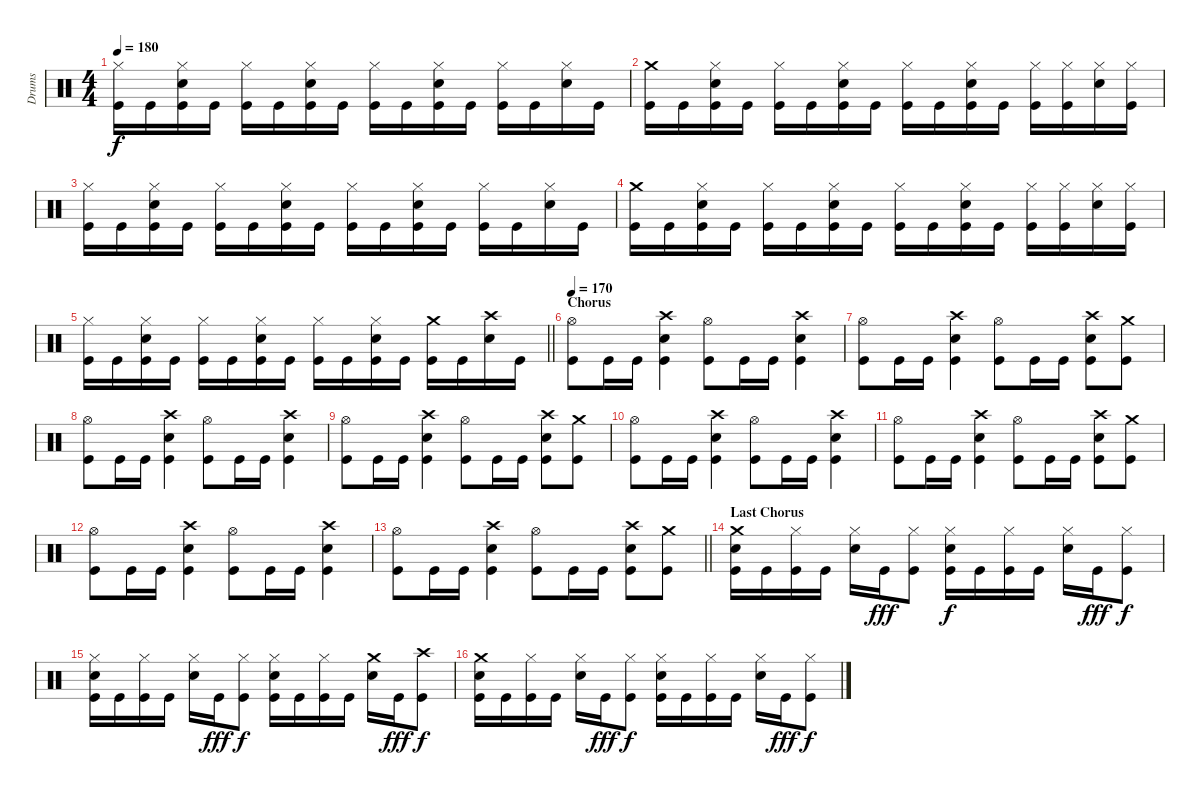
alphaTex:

\track ("Drums" "Drums") {instrument percussion}
\staff {score}
\articulation defaults
\ts (4 4)
\tempo 180
\clef neutral
\ks c
("Hi-Hat (closed)" "Kick (hit)").16{dy f} "Kick (hit)".16 ("Hi-Hat (closed)" "Snare (hit) 2" "Kick (hit)").16 "Kick (hit)".16 ("Hi-Hat (closed)" "Kick (hit)").16 "Kick (hit)".16 ("Hi-Hat (closed)" "Snare (hit) 2" "Kick (hit)").16 "Kick (hit)".16 ("Hi-Hat (closed)" "Kick (hit)").16 "Kick (hit)".16 ("Hi-Hat (closed)" "Snare (hit) 2" "Kick (hit)").16 "Kick (hit)".16 ("Hi-Hat (closed)" "Kick (hit)").16 "Kick (hit)".16 ("Hi-Hat (closed)" "Snare (hit) 2").16 "Kick (hit)".16 |
("Crash medium (hit)" "Kick (hit)").16 "Kick (hit)".16 ("Hi-Hat (closed)" "Snare (hit) 2" "Kick (hit)").16 "Kick (hit)".16 ("Hi-Hat (closed)" "Kick (hit)").16 "Kick (hit)".16 ("Hi-Hat (closed)" "Snare (hit) 2" "Kick (hit)").16 "Kick (hit)".16 ("Hi-Hat (closed)" "Kick (hit)").16 "Kick (hit)".16 ("Hi-Hat (closed)" "Snare (hit) 2" "Kick (hit)").16 "Kick (hit)".16 ("Hi-Hat (closed)" "Kick (hit)").16 ("Hi-Hat (closed)" "Kick (hit)").16 ("Hi-Hat (closed)" "Snare (hit) 2").16 ("Hi-Hat (closed)" "Kick (hit)").16 |
("Hi-Hat (closed)" "Kick (hit)").16 "Kick (hit)".16 ("Hi-Hat (closed)" "Snare (hit) 2" "Kick (hit)").16 "Kick (hit)".16 ("Hi-Hat (closed)" "Kick (hit)").16 "Kick (hit)".16 ("Hi-Hat (closed)" "Snare (hit) 2" "Kick (hit)").16 "Kick (hit)".16 ("Hi-Hat (closed)" "Kick (hit)").16 "Kick (hit)".16 ("Hi-Hat (closed)" "Snare (hit) 2" "Kick (hit)").16 "Kick (hit)".16 ("Hi-Hat (closed)" "Kick (hit)").16 "Kick (hit)".16 ("Hi-Hat (closed)" "Snare (hit) 2").16 "Kick (hit)".16 |
("Crash medium (hit)" "Kick (hit)").16 "Kick (hit)".16 ("Hi-Hat (closed)" "Snare (hit) 2" "Kick (hit)").16 "Kick (hit)".16 ("Hi-Hat (closed)" "Kick (hit)").16 "Kick (hit)".16 ("Hi-Hat (closed)" "Snare (hit) 2" "Kick (hit)").16 "Kick (hit)".16 ("Hi-Hat (closed)" "Kick (hit)").16 "Kick (hit)".16 ("Hi-Hat (closed)" "Snare (hit) 2" "Kick (hit)").16 "Kick (hit)".16 ("Hi-Hat (closed)" "Kick (hit)").16 ("Hi-Hat (closed)" "Kick (hit)").16 ("Hi-Hat (closed)" "Snare (hit) 2").16 ("Hi-Hat (closed)" "Kick (hit)").16 |
\barLineRight lightlight
("Hi-Hat (closed)" "Kick (hit)").16 "Kick (hit)".16 ("Hi-Hat (closed)" "Snare (hit) 2" "Kick (hit)").16 "Kick (hit)".16 ("Hi-Hat (closed)" "Kick (hit)").16 "Kick (hit)".16 ("Hi-Hat (closed)" "Snare (hit) 2" "Kick (hit)").16 "Kick (hit)".16 ("Hi-Hat (closed)" "Kick (hit)").16 "Kick (hit)".16 ("Hi-Hat (closed)" "Snare (hit) 2" "Kick (hit)").16 "Kick (hit)".16 ("Crash medium (hit)" "Kick (hit)").16 "Kick (hit)".16 ("Crash high (hit)" "Snare (hit) 2").16 "Kick (hit)".16 |
\section ("" "Chorus")
\tempo 170
("Hi-Hat (open)" "Kick (hit)").8 "Kick (hit)".16 "Kick (hit)".16 ("Crash high (hit)" "Snare (hit) 2" "Kick (hit)").4 ("Hi-Hat (open)" "Kick (hit)").8 "Kick (hit)".16 "Kick (hit)".16 ("Crash high (hit)" "Snare (hit) 2" "Kick (hit)").4 |
("Hi-Hat (open)" "Kick (hit)").8 "Kick (hit)".16 "Kick (hit)".16 ("Crash high (hit)" "Snare (hit) 2" "Kick (hit)").4 ("Hi-Hat (open)" "Kick (hit)").8 "Kick (hit)".16 "Kick (hit)".16 ("Crash high (hit)" "Snare (hit) 2" "Kick (hit)").8 ("Crash medium (hit)" "Kick (hit)").8 |
("Hi-Hat (open)" "Kick (hit)").8 "Kick (hit)".16 "Kick (hit)".16 ("Crash high (hit)" "Snare (hit) 2" "Kick (hit)").4 ("Hi-Hat (open)" "Kick (hit)").8 "Kick (hit)".16 "Kick (hit)".16 ("Crash high (hit)" "Snare (hit) 2" "Kick (hit)").4 |
("Hi-Hat (open)" "Kick (hit)").8 "Kick (hit)".16 "Kick (hit)".16 ("Crash high (hit)" "Snare (hit) 2" "Kick (hit)").4 ("Hi-Hat (open)" "Kick (hit)").8 "Kick (hit)".16 "Kick (hit)".16 ("Crash high (hit)" "Snare (hit) 2" "Kick (hit)").8 ("Crash medium (hit)" "Kick (hit)").8 |
("Hi-Hat (open)" "Kick (hit)").8 "Kick (hit)".16 "Kick (hit)".16 ("Crash high (hit)" "Snare (hit) 2" "Kick (hit)").4 ("Hi-Hat (open)" "Kick (hit)").8 "Kick (hit)".16 "Kick (hit)".16 ("Crash high (hit)" "Snare (hit) 2" "Kick (hit)").4 |
("Hi-Hat (open)" "Kick (hit)").8 "Kick (hit)".16 "Kick (hit)".16 ("Crash high (hit)" "Snare (hit) 2" "Kick (hit)").4 ("Hi-Hat (open)" "Kick (hit)").8 "Kick (hit)".16 "Kick (hit)".16 ("Crash high (hit)" "Snare (hit) 2" "Kick (hit)").8 ("Crash medium (hit)" "Kick (hit)").8 |
("Hi-Hat (open)" "Kick (hit)").8 "Kick (hit)".16 "Kick (hit)".16 ("Crash high (hit)" "Snare (hit) 2" "Kick (hit)").4 ("Hi-Hat (open)" "Kick (hit)").8 "Kick (hit)".16 "Kick (hit)".16 ("Crash high (hit)" "Snare (hit) 2" "Kick (hit)").4 |
\barLineRight lightlight
("Hi-Hat (open)" "Kick (hit)").8 "Kick (hit)".16 "Kick (hit)".16 ("Crash high (hit)" "Snare (hit) 2" "Kick (hit)").4 ("Hi-Hat (open)" "Kick (hit)").8 "Kick (hit)".16 "Kick (hit)".16 ("Crash high (hit)" "Snare (hit) 2" "Kick (hit)").8 ("Crash medium (hit)" "Kick (hit)").8 |
\section ("" "Last Chorus")
("Crash medium (hit)" "Snare (hit) 2" "Kick (hit)").16 "Kick (hit)".16 ("Hi-Hat (closed)" "Kick (hit)").16 "Kick (hit)".16 ("Hi-Hat (closed)" "Snare (hit) 2").16 "Kick (hit)".16{dy fff} ("Hi-Hat (closed)" "Kick (hit)").8 ("Hi-Hat (closed)" "Snare (hit) 2" "Kick (hit)").16{dy f} "Kick (hit)".16 ("Hi-Hat (closed)" "Kick (hit)").16 "Kick (hit)".16 ("Hi-Hat (closed)" "Snare (hit) 2").16 "Kick (hit)".16{dy fff} ("Hi-Hat (closed)" "Kick (hit)").8{dy f} |
("Hi-Hat (closed)" "Snare (hit) 2" "Kick (hit)").16 "Kick (hit)".16 ("Hi-Hat (closed)" "Kick (hit)").16 "Kick (hit)".16 ("Hi-Hat (closed)" "Snare (hit) 2").16 "Kick (hit)".16{dy fff} ("Hi-Hat (closed)" "Kick (hit)").8{dy f} ("Hi-Hat (closed)" "Snare (hit) 2" "Kick (hit)").16 "Kick (hit)".16 ("Hi-Hat (closed)" "Kick (hit)").16 "Kick (hit)".16 ("Crash medium (hit)" "Snare (hit) 2").16 "Kick (hit)".16{dy fff} ("Crash high (hit)" "Kick (hit)").8{dy f} |
("Crash medium (hit)" "Snare (hit) 2" "Kick (hit)").16 "Kick (hit)".16 ("Hi-Hat (closed)" "Kick (hit)").16 "Kick (hit)".16 ("Hi-Hat (closed)" "Snare (hit) 2").16 "Kick (hit)".16{dy fff} ("Hi-Hat (closed)" "Kick (hit)").8{dy f} ("Hi-Hat (closed)" "Snare (hit) 2" "Kick (hit)").16 "Kick (hit)".16 ("Hi-Hat (closed)" "Kick (hit)").16 "Kick (hit)".16 ("Hi-Hat (closed)" "Snare (hit) 2").16 "Kick (hit)".16{dy fff} ("Hi-Hat (closed)" "Kick (hit)").8{dy f}
